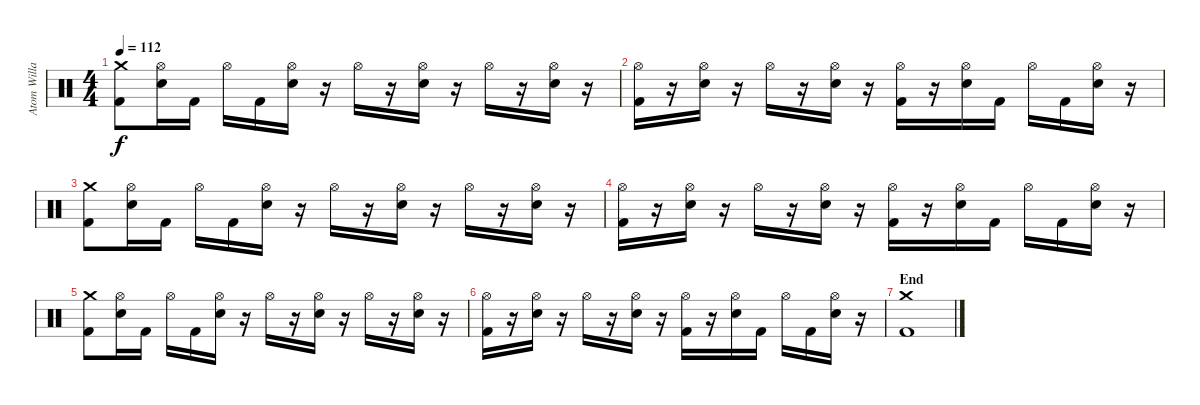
\track ("Atom Willard Drums" "Atom Willa") {instrument percussion}
\staff {score}
\articulation defaults
\ts (4 4)
\tempo 112
\clef neutral
\ks c
("Crash medium (hit)" "Kick (hit) 2").8{dy f} ("Hi-Hat (open)" "Electric Snare (hit)").16 "Kick (hit) 2".16 "Hi-Hat (open)".16 "Kick (hit) 2".16 ("Hi-Hat (open)" "Electric Snare (hit)").16 r.16 "Hi-Hat (open)".16 r.16 ("Hi-Hat (open)" "Electric Snare (hit)").16 r.16 "Hi-Hat (open)".16 r.16 ("Hi-Hat (open)" "Electric Snare (hit)").16 r.16 |
("Hi-Hat (open)" "Kick (hit) 2").16 r.16 ("Hi-Hat (open)" "Electric Snare (hit)").16 r.16 "Hi-Hat (open)".16 r.16 ("Hi-Hat (open)" "Electric Snare (hit)").16 r.16 ("Hi-Hat (open)" "Kick (hit) 2").16 r.16 ("Hi-Hat (open)" "Electric Snare (hit)").16 "Kick (hit) 2".16 "Hi-Hat (open)".16 "Kick (hit) 2".16 ("Hi-Hat (open)" "Electric Snare (hit)").16 r.16 |
("Crash medium (hit)" "Kick (hit) 2").8 ("Hi-Hat (open)" "Electric Snare (hit)").16 "Kick (hit) 2".16 "Hi-Hat (open)".16 "Kick (hit) 2".16 ("Hi-Hat (open)" "Electric Snare (hit)").16 r.16 "Hi-Hat (open)".16 r.16 ("Hi-Hat (open)" "Electric Snare (hit)").16 r.16 "Hi-Hat (open)".16 r.16 ("Hi-Hat (open)" "Electric Snare (hit)").16 r.16 |
("Hi-Hat (open)" "Kick (hit) 2").16 r.16 ("Hi-Hat (open)" "Electric Snare (hit)").16 r.16 "Hi-Hat (open)".16 r.16 ("Hi-Hat (open)" "Electric Snare (hit)").16 r.16 ("Hi-Hat (open)" "Kick (hit) 2").16 r.16 ("Hi-Hat (open)" "Electric Snare (hit)").16 "Kick (hit) 2".16 "Hi-Hat (open)".16 "Kick (hit) 2".16 ("Hi-Hat (open)" "Electric Snare (hit)").16 r.16 |
("Crash medium (hit)" "Kick (hit) 2").8 ("Hi-Hat (open)" "Electric Snare (hit)").16 "Kick (hit) 2".16 "Hi-Hat (open)".16 "Kick (hit) 2".16 ("Hi-Hat (open)" "Electric Snare (hit)").16 r.16 "Hi-Hat (open)".16 r.16 ("Hi-Hat (open)" "Electric Snare (hit)").16 r.16 "Hi-Hat (open)".16 r.16 ("Hi-Hat (open)" "Electric Snare (hit)").16 r.16 |
("Hi-Hat (open)" "Kick (hit) 2").16 r.16 ("Hi-Hat (open)" "Electric Snare (hit)").16 r.16 "Hi-Hat (open)".16 r.16 ("Hi-Hat (open)" "Electric Snare (hit)").16 r.16 ("Hi-Hat (open)" "Kick (hit) 2").16 r.16 ("Hi-Hat (open)" "Electric Snare (hit)").16 "Kick (hit) 2".16 "Hi-Hat (open)".16 "Kick (hit) 2".16 ("Hi-Hat (open)" "Electric Snare (hit)").16 r.16 |
\section ("" "End")
("Crash medium (hit)" "Kick (hit) 2").1
